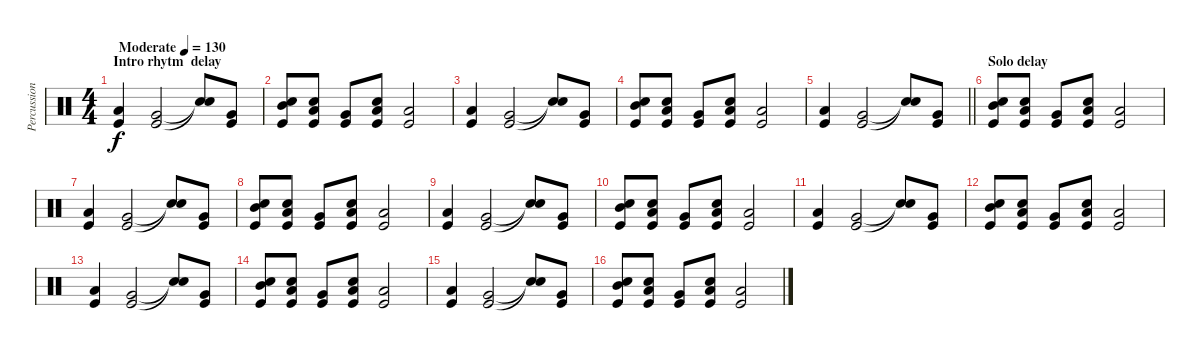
\track ("Percussions" "Percussion") {instrument percussion}
\staff {score}
\articulation defaults
\ts (4 4)
\section ("" "Intro rhytm  delay")
\tempo (130 "Moderate")
\clef neutral
\ks c
("Low Tom (hit)" "Kick (hit)").4{dy f} ("Very Low Tom (hit)" "Kick (hit)").2 ("Snare (hit)"{t} "Snare (hit)"{t}).8 ("Very Low Tom (hit)" "Kick (hit)").8 |
("Snare (hit) 2" "Mid Tom (hit)" "Kick (hit)").8 ("Snare (hit) 2" "Low Tom (hit)" "Kick (hit)").8 ("Very Low Tom (hit)" "Kick (hit)").8 ("Snare (hit) 2" "Low Tom (hit)" "Kick (hit)").8 ("Low Tom (hit)" "Kick (hit)").2 |
("Low Tom (hit)" "Kick (hit)").4 ("Very Low Tom (hit)" "Kick (hit)").2 ("Snare (hit)"{t} "Snare (hit)"{t}).8 ("Very Low Tom (hit)" "Kick (hit)").8 |
("Snare (hit) 2" "Mid Tom (hit)" "Kick (hit)").8 ("Snare (hit) 2" "Low Tom (hit)" "Kick (hit)").8 ("Very Low Tom (hit)" "Kick (hit)").8 ("Snare (hit) 2" "Low Tom (hit)" "Kick (hit)").8 ("Low Tom (hit)" "Kick (hit)").2 |
\barLineRight lightlight
("Low Tom (hit)" "Kick (hit)").4 ("Very Low Tom (hit)" "Kick (hit)").2 ("Snare (hit)"{t} "Snare (hit)"{t}).8 ("Very Low Tom (hit)" "Kick (hit)").8 |
\section ("" "Solo delay")
("Snare (hit) 2" "Mid Tom (hit)" "Kick (hit)").8 ("Snare (hit) 2" "Low Tom (hit)" "Kick (hit)").8 ("Very Low Tom (hit)" "Kick (hit)").8 ("Snare (hit) 2" "Low Tom (hit)" "Kick (hit)").8 ("Low Tom (hit)" "Kick (hit)").2 |
("Low Tom (hit)" "Kick (hit)").4 ("Very Low Tom (hit)" "Kick (hit)").2 ("Snare (hit)"{t} "Snare (hit)"{t}).8 ("Very Low Tom (hit)" "Kick (hit)").8 |
("Snare (hit) 2" "Mid Tom (hit)" "Kick (hit)").8 ("Snare (hit) 2" "Low Tom (hit)" "Kick (hit)").8 ("Very Low Tom (hit)" "Kick (hit)").8 ("Snare (hit) 2" "Low Tom (hit)" "Kick (hit)").8 ("Low Tom (hit)" "Kick (hit)").2 |
("Low Tom (hit)" "Kick (hit)").4 ("Very Low Tom (hit)" "Kick (hit)").2 ("Snare (hit)"{t} "Snare (hit)"{t}).8 ("Very Low Tom (hit)" "Kick (hit)").8 |
("Snare (hit) 2" "Mid Tom (hit)" "Kick (hit)").8 ("Snare (hit) 2" "Low Tom (hit)" "Kick (hit)").8 ("Very Low Tom (hit)" "Kick (hit)").8 ("Snare (hit) 2" "Low Tom (hit)" "Kick (hit)").8 ("Low Tom (hit)" "Kick (hit)").2 |
("Low Tom (hit)" "Kick (hit)").4 ("Very Low Tom (hit)" "Kick (hit)").2 ("Snare (hit)"{t} "Snare (hit)"{t}).8 ("Very Low Tom (hit)" "Kick (hit)").8 |
("Snare (hit) 2" "Mid Tom (hit)" "Kick (hit)").8 ("Snare (hit) 2" "Low Tom (hit)" "Kick (hit)").8 ("Very Low Tom (hit)" "Kick (hit)").8 ("Snare (hit) 2" "Low Tom (hit)" "Kick (hit)").8 ("Low Tom (hit)" "Kick (hit)").2 |
("Low Tom (hit)" "Kick (hit)").4 ("Very Low Tom (hit)" "Kick (hit)").2 ("Snare (hit)"{t} "Snare (hit)"{t}).8 ("Very Low Tom (hit)" "Kick (hit)").8 |
("Snare (hit) 2" "Mid Tom (hit)" "Kick (hit)").8 ("Snare (hit) 2" "Low Tom (hit)" "Kick (hit)").8 ("Very Low Tom (hit)" "Kick (hit)").8 ("Snare (hit) 2" "Low Tom (hit)" "Kick (hit)").8 ("Low Tom (hit)" "Kick (hit)").2 |
("Low Tom (hit)" "Kick (hit)").4 ("Very Low Tom (hit)" "Kick (hit)").2 ("Snare (hit)"{t} "Snare (hit)"{t}).8 ("Very Low Tom (hit)" "Kick (hit)").8 |
("Snare (hit) 2" "Mid Tom (hit)" "Kick (hit)").8 ("Snare (hit) 2" "Low Tom (hit)" "Kick (hit)").8 ("Very Low Tom (hit)" "Kick (hit)").8 ("Snare (hit) 2" "Low Tom (hit)" "Kick (hit)").8 ("Low Tom (hit)" "Kick (hit)").2
